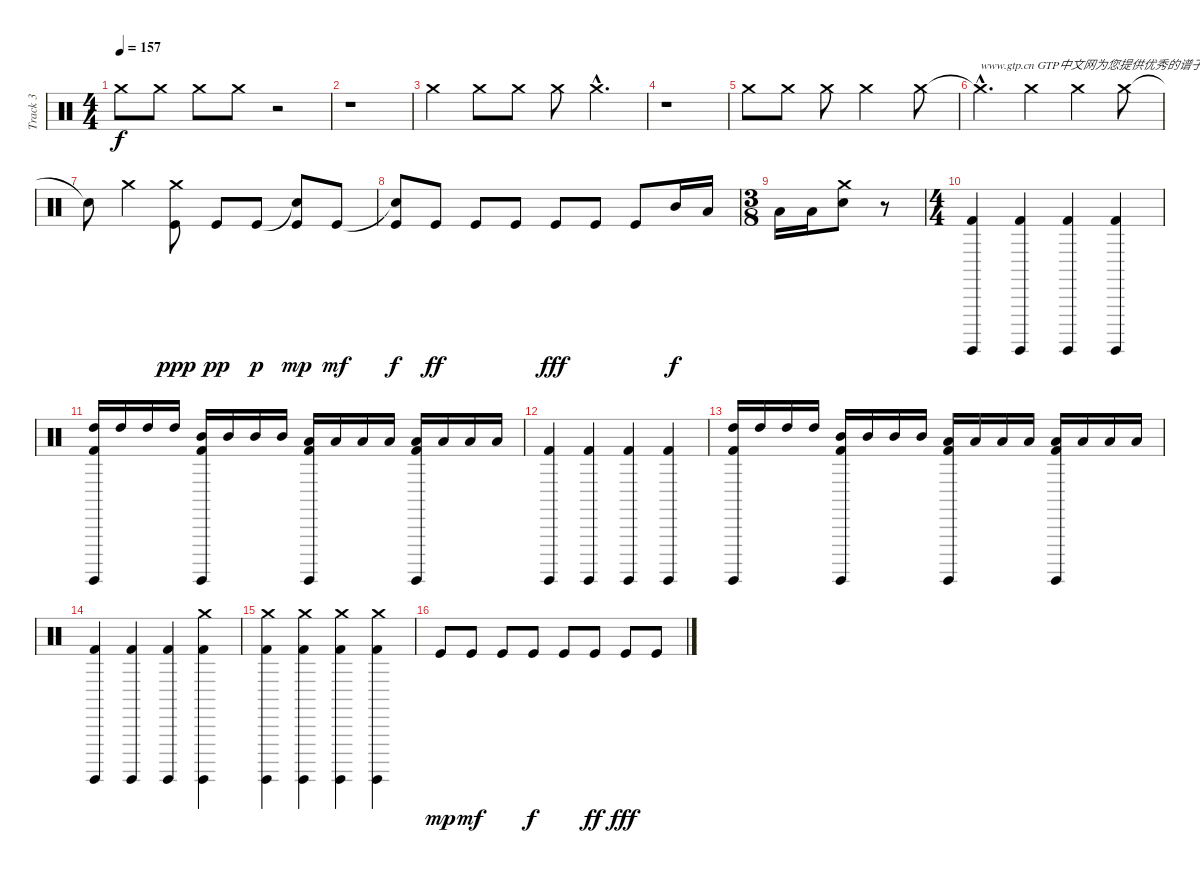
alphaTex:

\track ("Track 3" "Track 3") {instrument percussion}
\staff {score}
\articulation defaults
\ts (4 4)
\tempo 157
\clef neutral
\ks c "Crash medium (hit)".8{dy f} "Crash medium (hit)".8 "Crash medium (hit)".8 "Crash medium (hit)".8
r.2 |
r.1 |
"Crash medium (hit)".4 "Crash medium (hit)".8 "Crash medium (hit)".8 "Crash medium (hit)".8 "Crash medium (hit)"{hac}.4{d} |
r.1 |
"Crash medium (hit)".8 "Crash medium (hit)".8 "Crash medium (hit)".8 "Crash medium (hit)".2 "Crash medium (hit)".8 |
"Crash medium (hit)"{hac t}.4{d txt "www.gtp.cn GTP中文网为您提供优秀的谱子"} "Crash medium (hit)".4 "Crash medium (hit)".4 "Crash medium (hit)".8 |
"Snare (hit)"{t}.8 "Crash medium (hit)".4 ("Crash medium (hit)" "Kick (hit)").8{dy ppp} "Kick (hit)".8{dy pp} "Kick (hit)".8{dy p} ("Snare (hit)"{t} "Kick (hit)").8{dy mp} "Kick (hit)".8{dy mf} |
("Snare (hit)"{t} "Kick (hit)").8{dy f} "Kick (hit)".8{dy ff} "Kick (hit)".8 "Kick (hit)".8 "Kick (hit)".8{dy fff} "Kick (hit)".8 "Kick (hit)".8 "Mid Tom (hit)".16{dy f} "Low Tom (hit)".16 |
\ts (3 8)
"Low Floor Tom (hit)".16 "Low Floor Tom (hit)".16 ("Crash medium (hit)" "Electric Snare (hit)").8 r.8 |
\ts (4 4)
("Surdo (hit)" "Kick (hit) 2").4 ("Surdo (hit)" "Kick (hit) 2").4 ("Surdo (hit)" "Kick (hit) 2").4 ("Surdo (hit)" "Kick (hit) 2").4 |
("Surdo (hit)" "Kick (hit) 2" "High Tom (hit)").16 "High Tom (hit)".16 "High Tom (hit)".16 "High Tom (hit)".16 ("Surdo (hit)" "Kick (hit) 2" "Mid Tom (hit)").16 "Mid Tom (hit)".16 "Mid Tom (hit)".16 "Mid Tom (hit)".16 ("Surdo (hit)" "Kick (hit) 2" "Low Tom (hit)").16 "Low Tom (hit)".16 "Low Tom (hit)".16 "Low Tom (hit)".16 ("Surdo (hit)" "Kick (hit) 2" "Low Floor Tom (hit)").16 "Low Floor Tom (hit)".16 "Low Floor Tom (hit)".16 "Low Floor Tom (hit)".16 |
("Surdo (hit)" "Kick (hit) 2").4 ("Surdo (hit)" "Kick (hit) 2").4 ("Surdo (hit)" "Kick (hit) 2").4 ("Surdo (hit)" "Kick (hit) 2").4 |
("Surdo (hit)" "Kick (hit) 2" "High Tom (hit)").16 "High Tom (hit)".16 "High Tom (hit)".16 "High Tom (hit)".16 ("Surdo (hit)" "Kick (hit) 2" "Mid Tom (hit)").16 "Mid Tom (hit)".16 "Mid Tom (hit)".16 "Mid Tom (hit)".16 ("Surdo (hit)" "Kick (hit) 2" "Low Tom (hit)").16 "Low Tom (hit)".16 "Low Tom (hit)".16 "Low Tom (hit)".16 ("Surdo (hit)" "Kick (hit) 2" "Low Floor Tom (hit)").16 "Low Floor Tom (hit)".16 "Low Floor Tom (hit)".16 "Low Floor Tom (hit)".16 |
("Surdo (hit)" "Kick (hit) 2").4 ("Surdo (hit)" "Kick (hit) 2").4 ("Surdo (hit)" "Kick (hit) 2").4 ("Surdo (hit)" "Kick (hit) 2" "Crash medium (hit)").4 |
("Surdo (hit)" "Kick (hit) 2" "Crash medium (hit)").4 ("Surdo (hit)" "Kick (hit) 2" "Crash medium (hit)").4 ("Surdo (hit)" "Kick (hit) 2" "Crash medium (hit)").4 ("Surdo (hit)" "Kick (hit) 2" "Crash medium (hit)").4 |
"Kick (hit)".8{dy mp} "Kick (hit)".8{dy mf} "Kick (hit)".8 "Kick (hit)".8{dy f} "Kick (hit)".8 "Kick (hit)".8{dy ff} "Kick (hit)".8{dy fff} "Kick (hit)".8
